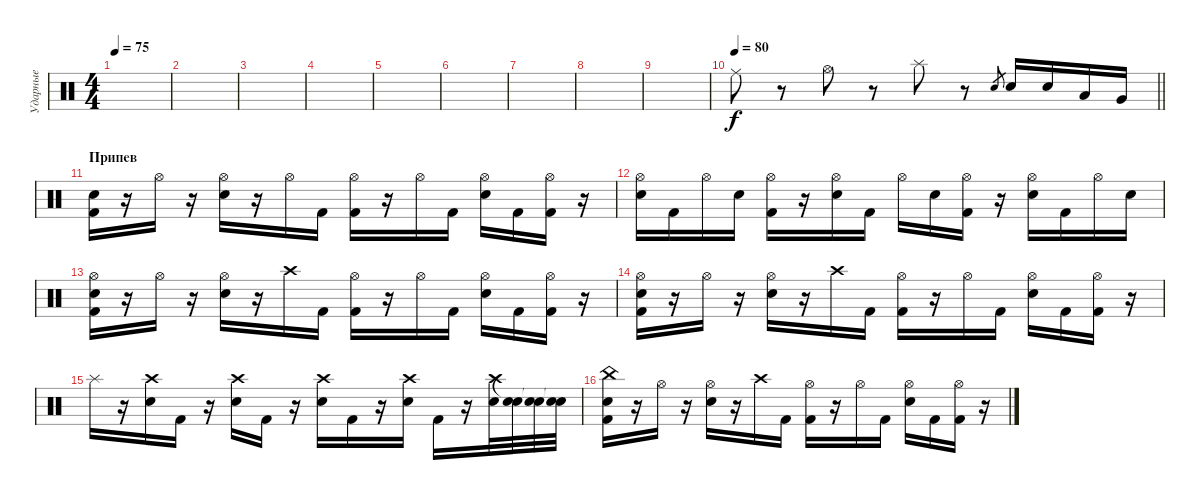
\track ("Ударные" "Ударные") {instrument percussion}
\staff {score}
\articulation defaults
\ts (4 4)
\tempo 75
\clef neutral
\ks c
|
|
|
|
|
|
|
|
|
\tempo 80
\barLineRight lightlight "Ride (middle)".8
r.8 "Hi-Hat (open)".8 r.8 "Splash (hit)".8 r.8 "Electric Snare (hit)".8{gr} "Electric Snare (hit)".16 "Electric Snare (hit)".16 "Low Tom (hit)".16 "Very Low Tom (hit)".16 |
\section ("" "Припев")
("Electric Snare (hit)" "Kick (hit) 2").16 r.16 "Hi-Hat (open)".16 r.16 ("Hi-Hat (open)" "Electric Snare (hit)").16 r.16 "Hi-Hat (open)".16 "Kick (hit) 2".16 ("Hi-Hat (open)" "Kick (hit) 2").16 r.16 "Hi-Hat (open)".16 "Kick (hit) 2".16 ("Hi-Hat (open)" "Electric Snare (hit)").16 "Kick (hit) 2".16 ("Hi-Hat (open)" "Kick (hit) 2").16 r.16 |
("Hi-Hat (open)" "Electric Snare (hit)").16 "Kick (hit) 2".16 "Hi-Hat (open)".16 "Electric Snare (hit)".16 ("Hi-Hat (open)" "Kick (hit) 2").16 r.16 ("Hi-Hat (open)" "Electric Snare (hit)").16 "Kick (hit) 2".16 "Hi-Hat (open)".16 "Electric Snare (hit)".16 ("Hi-Hat (open)" "Kick (hit) 2").16 r.16 ("Hi-Hat (open)" "Electric Snare (hit)").16 "Kick (hit) 2".16 "Hi-Hat (open)".16 "Electric Snare (hit)".16 |
("Hi-Hat (open)" "Electric Snare (hit)" "Kick (hit) 2").16 r.16 "Hi-Hat (open)".16 r.16 ("Hi-Hat (open)" "Electric Snare (hit)").16 r.16 "Crash high (hit)".16 "Kick (hit) 2".16 ("Hi-Hat (open)" "Kick (hit) 2").16 r.16 "Hi-Hat (open)".16 "Kick (hit) 2".16 ("Hi-Hat (open)" "Electric Snare (hit)").16 "Kick (hit) 2".16 ("Hi-Hat (open)" "Kick (hit) 2").16 r.16 |
("Hi-Hat (open)" "Electric Snare (hit)" "Kick (hit) 2").16 r.16 "Hi-Hat (open)".16 r.16 ("Hi-Hat (open)" "Electric Snare (hit)").16 r.16 "Crash high (hit)".16 "Kick (hit) 2".16 ("Hi-Hat (open)" "Kick (hit) 2").16 r.16 "Hi-Hat (open)".16 "Kick (hit) 2".16 ("Hi-Hat (open)" "Electric Snare (hit)").16 "Kick (hit) 2".16 ("Hi-Hat (open)" "Kick (hit) 2").16 r.16 |
"Splash (hit)".16 r.16 ("Crash high (hit)" "Electric Snare (hit)").16 "Kick (hit) 2".16 r.16 ("Crash high (hit)" "Electric Snare (hit)").16 "Kick (hit) 2".16 r.16 ("Crash high (hit)" "Electric Snare (hit)").16 "Kick (hit) 2".16 r.16 ("Crash high (hit)" "Electric Snare (hit)").16 "Kick (hit) 2".16 r.16 ("Crash high (hit)" "Electric Snare (hit)").32 ("Snare (hit)"{t} "Electric Snare (hit)").32 ("Snare (hit)"{t} "Electric Snare (hit)").32 ("Snare (hit)"{t} "Electric Snare (hit)").32 |
("China (hit)" "Electric Snare (hit)" "Kick (hit) 2").16 r.16 "Hi-Hat (open)".16 r.16 ("Hi-Hat (open)" "Electric Snare (hit)").16 r.16 "Crash high (hit)".16 "Kick (hit) 2".16 ("Hi-Hat (open)" "Kick (hit) 2").16 r.16 "Hi-Hat (open)".16 "Kick (hit) 2".16 ("Hi-Hat (open)" "Electric Snare (hit)").16 "Kick (hit) 2".16 ("Hi-Hat (open)" "Kick (hit) 2").16 r.16
